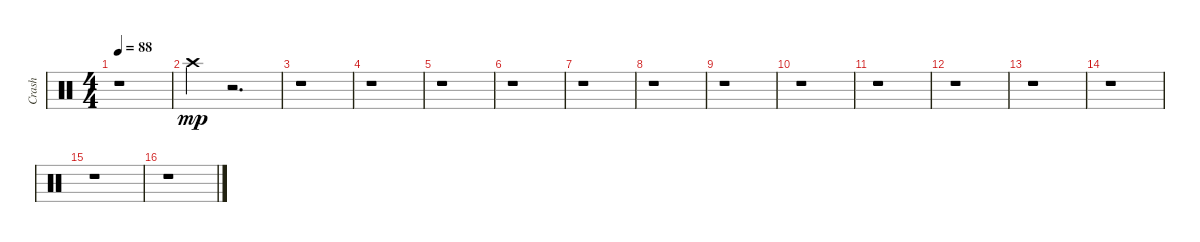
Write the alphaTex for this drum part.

\track ("Crash" "Crash") {instrument percussion}
\staff {score}
\articulation defaults
\ts (4 4)
\tempo 88
\clef neutral
\ks c
r.1{dy mp} |
"Crash high (hit)".4 r.2{d} |
r.1 |
r.1 |
r.1 |
r.1 |
r.1 |
r.1 |
r.1 |
r.1 |
r.1 |
r.1 |
r.1 |
r.1 |
r.1 |
r.1
